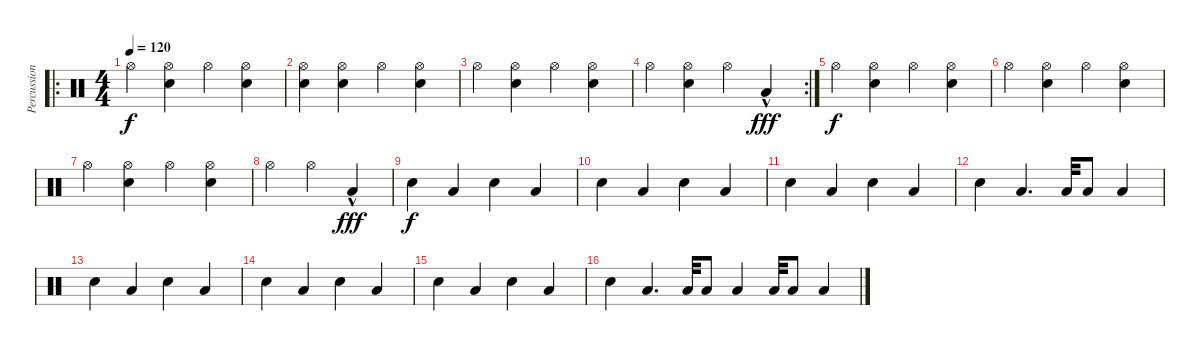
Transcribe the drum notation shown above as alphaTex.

\track ("Percussion" "Percussion") {instrument percussion}
\staff {score}
\articulation defaults
\ro
\ts (4 4)
\tempo 120
\clef neutral
\ks c "Hi-Hat (open)".4{dy f}
("Hi-Hat (open)" "Snare (hit) 2").4 "Hi-Hat (open)".4 ("Hi-Hat (open)" "Snare (hit) 2").4 |
("Hi-Hat (open)" "Snare (hit)").4 ("Hi-Hat (open)" "Snare (hit) 2").4 "Hi-Hat (open)".4 ("Hi-Hat (open)" "Snare (hit) 2").4 |
"Hi-Hat (open)".4 ("Hi-Hat (open)" "Snare (hit) 2").4 "Hi-Hat (open)".4 ("Hi-Hat (open)" "Snare (hit) 2").4 |
\rc 2 "Hi-Hat (open)".4
("Hi-Hat (open)" "Snare (hit) 2").4 "Hi-Hat (open)".4 "Low Tom (hit)"{hac}.4{dy fff} |
"Hi-Hat (open)".4{dy f} ("Hi-Hat (open)" "Snare (hit) 2").4 "Hi-Hat (open)".4 ("Hi-Hat (open)" "Snare (hit) 2").4 |
"Hi-Hat (open)".4 ("Hi-Hat (open)" "Snare (hit) 2").4 "Hi-Hat (open)".4 ("Hi-Hat (open)" "Snare (hit) 2").4 |
"Hi-Hat (open)".4 ("Hi-Hat (open)" "Snare (hit) 2").4 "Hi-Hat (open)".4 ("Hi-Hat (open)" "Snare (hit) 2").4 |
"Hi-Hat (open)".4 "Hi-Hat (open)".4 "Low Tom (hit)"{hac}.4{dy fff} |
"Snare (hit)".4{dy f} "Low Tom (hit)".4 "Snare (hit)".4 "Low Tom (hit)".4 |
"Snare (hit)".4 "Low Tom (hit)".4 "Snare (hit)".4 "Low Tom (hit)".4 |
"Snare (hit)".4 "Low Tom (hit)".4 "Snare (hit)".4 "Low Tom (hit)".4 |
"Snare (hit)".4 "Low Tom (hit)".4{d} "Low Tom (hit)".32 "Low Tom (hit)".8 "Low Tom (hit)".4 |
"Snare (hit)".4 "Low Tom (hit)".4 "Snare (hit)".4 "Low Tom (hit)".4 |
"Snare (hit)".4 "Low Tom (hit)".4 "Snare (hit)".4 "Low Tom (hit)".4 |
"Snare (hit)".4 "Low Tom (hit)".4 "Snare (hit)".4 "Low Tom (hit)".4 |
"Snare (hit)".4 "Low Tom (hit)".4{d} "Low Tom (hit)".32 "Low Tom (hit)".8 "Low Tom (hit)".4 "Low Tom (hit)".32 "Low Tom (hit)".8 "Low Tom (hit)".4
